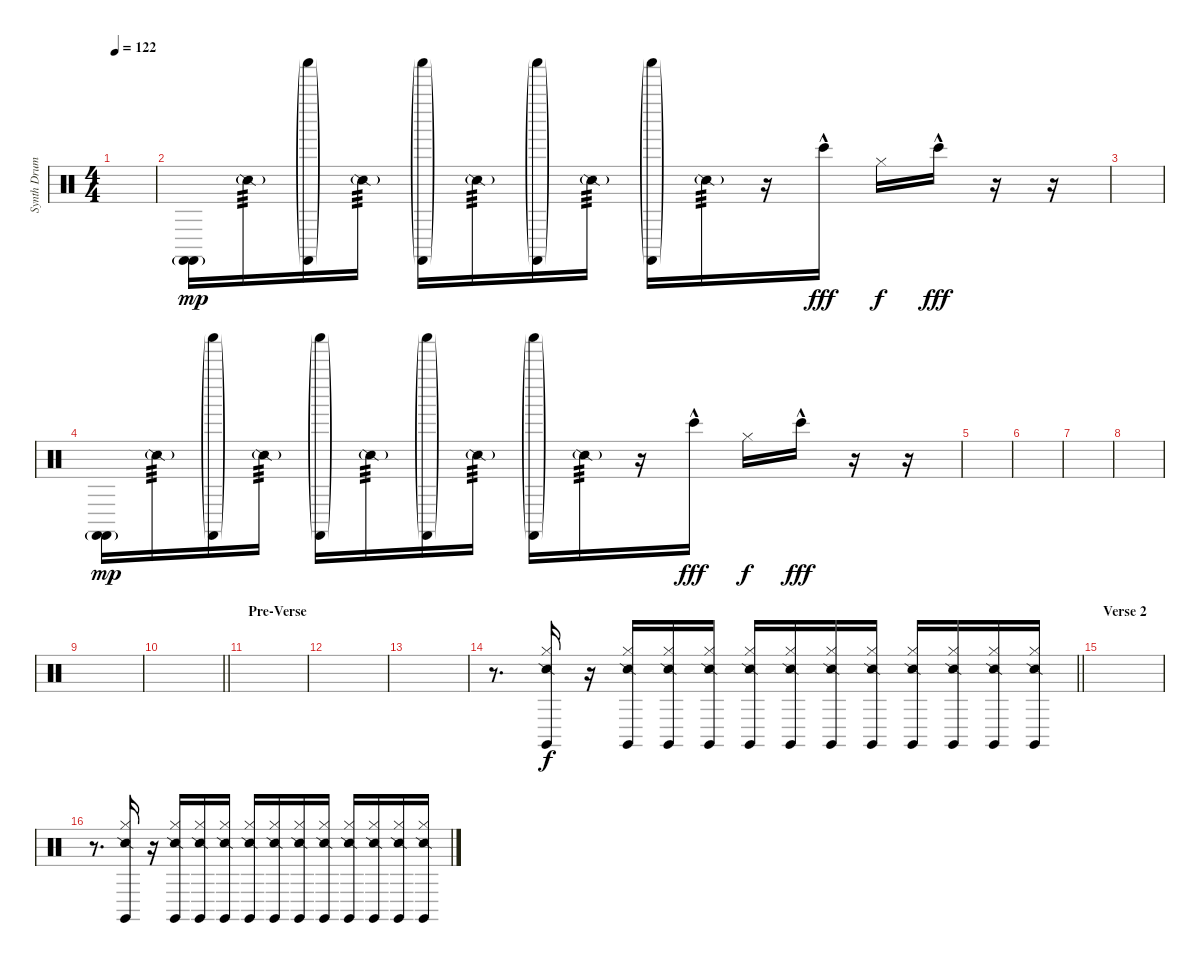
\track ("Synth Drums" "Synth Drum") {instrument percussion}
\staff {score}
\articulation defaults
\ts (4 4)
\tempo 122
\clef neutral
\ks c
|
("Castanets (hit)"{g} "Castanets (hit)"{g}).16{dy mp} "Snare (side stick) 2"{g}.16{tp 3} ("Castanets (hit)"{g} "Shaker (hit)"{g}).16 "Snare (side stick) 2"{g}.16{tp 3} ("Castanets (hit)"{g} "Shaker (hit)"{g}).16 "Snare (side stick) 2"{g}.16{tp 3} ("Castanets (hit)"{g} "Shaker (hit)"{g}).16 "Snare (side stick) 2"{g}.16{tp 3} ("Castanets (hit)"{g} "Shaker (hit)"{g}).16 "Snare (side stick) 2"{g}.16{tp 3} r.16 "Bongo High (hit)"{hac}.16{dy fff} "Hi-Hat (closed)".16{dy f} "Bongo High (hit)"{hac}.16{dy fff} r.16 r.16 |
|
("Castanets (hit)"{g} "Castanets (hit)"{g}).16{dy mp} "Snare (side stick) 2"{g}.16{tp 3} ("Castanets (hit)"{g} "Shaker (hit)"{g}).16 "Snare (side stick) 2"{g}.16{tp 3} ("Castanets (hit)"{g} "Shaker (hit)"{g}).16 "Snare (side stick) 2"{g}.16{tp 3} ("Castanets (hit)"{g} "Shaker (hit)"{g}).16 "Snare (side stick) 2"{g}.16{tp 3} ("Castanets (hit)"{g} "Shaker (hit)"{g}).16 "Snare (side stick) 2"{g}.16{tp 3} r.16 "Bongo High (hit)"{hac}.16{dy fff} "Hi-Hat (closed)".16{dy f} "Bongo High (hit)"{hac}.16{dy fff} r.16 r.16 |
|
|
|
|
|
\barLineRight lightlight
|
\section ("" "Pre-Verse")
|
|
|
\barLineRight lightlight
r.8{d} ("Hi-Hat (closed)" "Snare (side stick) 2" "Claves (hit)").16{dy f} r.16 ("Hi-Hat (closed)" "Snare (side stick) 2" "Claves (hit)").16 ("Hi-Hat (closed)" "Snare (side stick) 2" "Claves (hit)").16 ("Hi-Hat (closed)" "Snare (side stick) 2" "Claves (hit)").16 ("Hi-Hat (closed)" "Snare (side stick) 2" "Claves (hit)").16 ("Hi-Hat (closed)" "Snare (side stick) 2" "Claves (hit)").16 ("Hi-Hat (closed)" "Snare (side stick) 2" "Claves (hit)").16 ("Hi-Hat (closed)" "Snare (side stick) 2" "Claves (hit)").16 ("Hi-Hat (closed)" "Snare (side stick) 2" "Claves (hit)").16 ("Hi-Hat (closed)" "Snare (side stick) 2" "Claves (hit)").16 ("Hi-Hat (closed)" "Snare (side stick) 2" "Claves (hit)").16 ("Hi-Hat (closed)" "Snare (side stick) 2" "Claves (hit)").16 |
\section ("" "Verse 2")
|
r.8{d} ("Hi-Hat (closed)" "Snare (side stick) 2" "Claves (hit)").16 r.16 ("Hi-Hat (closed)" "Snare (side stick) 2" "Claves (hit)").16 ("Hi-Hat (closed)" "Snare (side stick) 2" "Claves (hit)").16 ("Hi-Hat (closed)" "Snare (side stick) 2" "Claves (hit)").16 ("Hi-Hat (closed)" "Snare (side stick) 2" "Claves (hit)").16 ("Hi-Hat (closed)" "Snare (side stick) 2" "Claves (hit)").16 ("Hi-Hat (closed)" "Snare (side stick) 2" "Claves (hit)").16 ("Hi-Hat (closed)" "Snare (side stick) 2" "Claves (hit)").16 ("Hi-Hat (closed)" "Snare (side stick) 2" "Claves (hit)").16 ("Hi-Hat (closed)" "Snare (side stick) 2" "Claves (hit)").16 ("Hi-Hat (closed)" "Snare (side stick) 2" "Claves (hit)").16 ("Hi-Hat (closed)" "Snare (side stick) 2" "Claves (hit)").16
